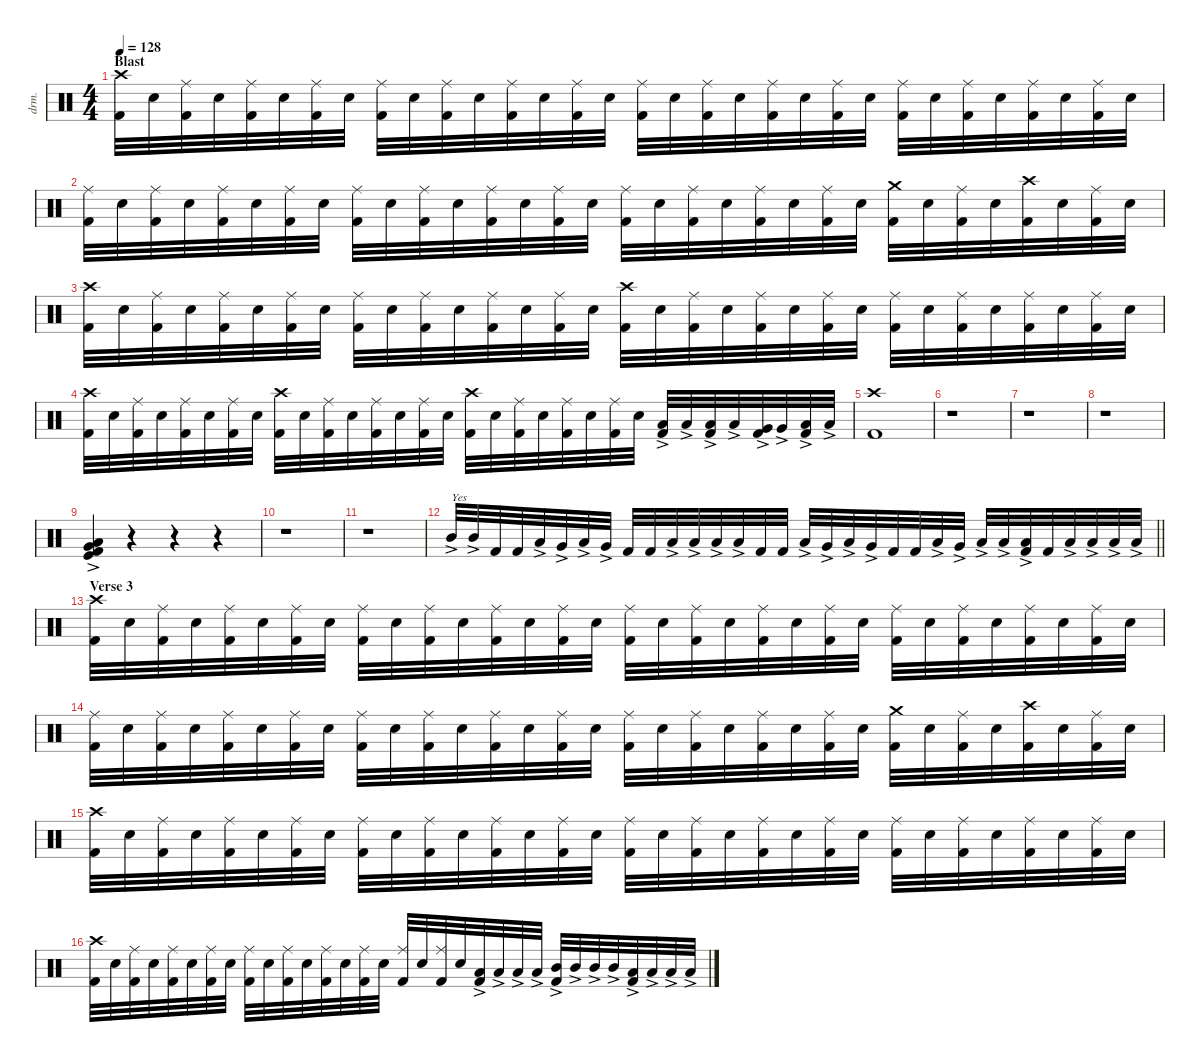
\defaultSystemsLayout 4
\hideDynamics
\bracketExtendMode nobrackets
\otherSystemsTrackNameOrientation horizontal
\track ("Drums" "drm.") {instrument percussion}
\staff {score}
\articulation defaults
\ts (4 4)
\section ("" "Blast")
\tempo 128
\clef neutral
\ks c
("Crash high (hit)" "Kick (hit) 2").32{dy f beam Down} "Snare (hit) 2".32{beam Down} ("Ride (middle)" "Kick (hit) 2").32{beam Down} "Snare (hit) 2".32{beam Down} ("Ride (middle)" "Kick (hit) 2").32{beam Down} "Snare (hit) 2".32{beam Down} ("Ride (middle)" "Kick (hit) 2").32{beam Down} "Snare (hit) 2".32{beam Down} ("Ride (middle)" "Kick (hit) 2").32{beam Down} "Snare (hit) 2".32{beam Down} ("Ride (middle)" "Kick (hit) 2").32{beam Down} "Snare (hit) 2".32{beam Down} ("Ride (middle)" "Kick (hit) 2").32{beam Down} "Snare (hit) 2".32{beam Down} ("Ride (middle)" "Kick (hit) 2").32{beam Down} "Snare (hit) 2".32{beam Down} ("Ride (middle)" "Kick (hit) 2").32{beam Down} "Snare (hit) 2".32{beam Down} ("Ride (middle)" "Kick (hit) 2").32{beam Down} "Snare (hit) 2".32{beam Down} ("Ride (middle)" "Kick (hit) 2").32{beam Down} "Snare (hit) 2".32{beam Down} ("Ride (middle)" "Kick (hit) 2").32{beam Down} "Snare (hit) 2".32{beam Down} ("Ride (middle)" "Kick (hit) 2").32{beam Down} "Snare (hit) 2".32{beam Down} ("Ride (middle)" "Kick (hit) 2").32{beam Down} "Snare (hit) 2".32{beam Down} ("Ride (middle)" "Kick (hit) 2").32{beam Down} "Snare (hit) 2".32{beam Down} ("Ride (middle)" "Kick (hit) 2").32{beam Down} "Snare (hit) 2".32{beam Down} |
("Ride (middle)" "Kick (hit) 2").32{beam Down} "Snare (hit) 2".32{beam Down} ("Ride (middle)" "Kick (hit) 2").32{beam Down} "Snare (hit) 2".32{beam Down} ("Ride (middle)" "Kick (hit) 2").32{beam Down} "Snare (hit) 2".32{beam Down} ("Ride (middle)" "Kick (hit) 2").32{beam Down} "Snare (hit) 2".32{beam Down} ("Ride (middle)" "Kick (hit) 2").32{beam Down} "Snare (hit) 2".32{beam Down} ("Ride (middle)" "Kick (hit) 2").32{beam Down} "Snare (hit) 2".32{beam Down} ("Ride (middle)" "Kick (hit) 2").32{beam Down} "Snare (hit) 2".32{beam Down} ("Ride (middle)" "Kick (hit) 2").32{beam Down} "Snare (hit) 2".32{beam Down} ("Ride (middle)" "Kick (hit) 2").32{beam Down} "Snare (hit) 2".32{beam Down} ("Ride (middle)" "Kick (hit) 2").32{beam Down} "Snare (hit) 2".32{beam Down} ("Ride (middle)" "Kick (hit) 2").32{beam Down} "Snare (hit) 2".32{beam Down} ("Ride (middle)" "Kick (hit) 2").32{beam Down} "Snare (hit) 2".32{beam Down} ("Crash medium (hit)" "Kick (hit) 2").32{beam Down} "Snare (hit) 2".32{beam Down} ("Ride (middle)" "Kick (hit) 2").32{beam Down} "Snare (hit) 2".32{beam Down} ("Crash high (hit)" "Kick (hit) 2").32{beam Down} "Snare (hit) 2".32{beam Down} ("Ride (middle)" "Kick (hit) 2").32{beam Down} "Snare (hit) 2".32{beam Down} |
("Crash high (hit)" "Kick (hit) 2").32{beam Down} "Snare (hit) 2".32{beam Down} ("Ride (middle)" "Kick (hit) 2").32{beam Down} "Snare (hit) 2".32{beam Down} ("Ride (middle)" "Kick (hit) 2").32{beam Down} "Snare (hit) 2".32{beam Down} ("Ride (middle)" "Kick (hit) 2").32{beam Down} "Snare (hit) 2".32{beam Down} ("Ride (middle)" "Kick (hit) 2").32{beam Down} "Snare (hit) 2".32{beam Down} ("Ride (middle)" "Kick (hit) 2").32{beam Down} "Snare (hit) 2".32{beam Down} ("Ride (middle)" "Kick (hit) 2").32{beam Down} "Snare (hit) 2".32{beam Down} ("Ride (middle)" "Kick (hit) 2").32{beam Down} "Snare (hit) 2".32{beam Down} ("Crash high (hit)" "Kick (hit) 2").32{beam Down} "Snare (hit) 2".32{beam Down} ("Ride (middle)" "Kick (hit) 2").32{beam Down} "Snare (hit) 2".32{beam Down} ("Ride (middle)" "Kick (hit) 2").32{beam Down} "Snare (hit) 2".32{beam Down} ("Ride (middle)" "Kick (hit) 2").32{beam Down} "Snare (hit) 2".32{beam Down} ("Ride (middle)" "Kick (hit) 2").32{beam Down} "Snare (hit) 2".32{beam Down} ("Ride (middle)" "Kick (hit) 2").32{beam Down} "Snare (hit) 2".32{beam Down} ("Ride (middle)" "Kick (hit) 2").32{beam Down} "Snare (hit) 2".32{beam Down} ("Ride (middle)" "Kick (hit) 2").32{beam Down} "Snare (hit) 2".32{beam Down} |
("Crash high (hit)" "Kick (hit) 2").32{beam Down} "Snare (hit) 2".32{beam Down} ("Ride (middle)" "Kick (hit) 2").32{beam Down} "Snare (hit) 2".32{beam Down} ("Ride (middle)" "Kick (hit) 2").32{beam Down} "Snare (hit) 2".32{beam Down} ("Ride (middle)" "Kick (hit) 2").32{beam Down} "Snare (hit) 2".32{beam Down} ("Crash high (hit)" "Kick (hit) 2").32{beam Down} "Snare (hit) 2".32{beam Down} ("Ride (middle)" "Kick (hit) 2").32{beam Down} "Snare (hit) 2".32{beam Down} ("Ride (middle)" "Kick (hit) 2").32{beam Down} "Snare (hit) 2".32{beam Down} ("Ride (middle)" "Kick (hit) 2").32{beam Down} "Snare (hit) 2".32{beam Down} ("Crash high (hit)" "Kick (hit) 2").32{beam Down} "Snare (hit) 2".32{beam Down} ("Ride (middle)" "Kick (hit) 2").32{beam Down} "Snare (hit) 2".32{beam Down} ("Ride (middle)" "Kick (hit) 2").32{beam Down} "Snare (hit) 2".32{beam Down} ("Ride (middle)" "Kick (hit) 2").32{beam Down} "Snare (hit) 2".32{beam Down} ("Low Tom (hit)"{ac} "Kick (hit) 2").32{beam Up} "Low Tom (hit)"{ac}.32{dy mf beam Up} ("Low Tom (hit)"{ac} "Kick (hit) 2").32{dy f beam Up} "Low Tom (hit)"{ac}.32{dy mf beam Up} ("Very Low Tom (hit)"{ac} "Kick (hit) 2").32{dy f beam Up} "Very Low Tom (hit)"{ac}.32{dy mf beam Up} ("Low Floor Tom (hit)"{ac} "Kick (hit) 2").32{dy f beam Up} "Low Floor Tom (hit)"{ac}.32{dy mf beam Up} |
("Crash high (hit)" "Kick (hit) 2").1{dy f beam Down} |
r.1{beam Down} |
r.1{beam Down} |
r.1{beam Down} |
("Very Low Tom (hit)"{ac} "Low Floor Tom (hit)"{ac} "Kick (hit)" "Kick (hit) 2").4{beam Up} r.4{beam Up} r.4{beam Up} r.4{beam Up} |
r.1{beam Down} |
r.1{beam Down} |
\barLineRight lightlight "Mid Tom (hit)"{ac}.32{txt "Yes" dy mf beam Up} "Mid Tom (hit)"{ac}.32{beam Up} "Kick (hit) 2".32{dy f beam Up} "Kick (hit) 2".32{beam Up} "Low Floor Tom (hit)"{ac}.32{dy mf beam Up} "Very Low Tom (hit)"{ac}.32{beam Up} "Low Floor Tom (hit)"{ac}.32{beam Up} "Very Low Tom (hit)"{ac}.32{beam Up} "Kick (hit) 2".32{dy f beam Up} "Kick (hit) 2".32{beam Up} "Low Tom (hit)"{ac}.32{dy mf beam Up} "Low Tom (hit)"{ac}.32{beam Up} "Low Tom (hit)"{ac}.32{beam Up} "Low Floor Tom (hit)"{ac}.32{beam Up} "Kick (hit) 2".32{dy f beam Up} "Kick (hit) 2".32{beam Up} "Low Tom (hit)"{ac}.32{dy mf beam Up} "Very Low Tom (hit)"{ac}.32{beam Up} "Low Tom (hit)"{ac}.32{beam Up} "Very Low Tom (hit)"{ac}.32{beam Up} "Kick (hit) 2".32{dy f beam Up} "Kick (hit) 2".32{beam Up} "Low Tom (hit)"{ac}.32{dy mf beam Up} "Very Low Tom (hit)"{ac}.32{beam Up} "Low Tom (hit)"{ac}.32{beam Up} "Low Tom (hit)"{ac}.32{beam Up}
("Low Tom (hit)"{ac} "Kick (hit) 2").32{dy f beam Up} "Kick (hit) 2".32{beam Up} "Low Floor Tom (hit)"{ac}.32{dy mf beam Up} "Low Floor Tom (hit)"{ac}.32{beam Up} "Low Floor Tom (hit)"{ac}.32{beam Up} "Low Floor Tom (hit)"{ac}.32{beam Up} |
\section ("" "Verse 3")
("Crash high (hit)" "Kick (hit) 2").32{dy f beam Down} "Snare (hit) 2".32{beam Down} ("Ride (middle)" "Kick (hit) 2").32{beam Down} "Snare (hit) 2".32{beam Down} ("Ride (middle)" "Kick (hit) 2").32{beam Down} "Snare (hit) 2".32{beam Down} ("Ride (middle)" "Kick (hit) 2").32{beam Down} "Snare (hit) 2".32{beam Down} ("Ride (middle)" "Kick (hit) 2").32{beam Down} "Snare (hit) 2".32{beam Down} ("Ride (middle)" "Kick (hit) 2").32{beam Down} "Snare (hit) 2".32{beam Down} ("Ride (middle)" "Kick (hit) 2").32{beam Down} "Snare (hit) 2".32{beam Down} ("Ride (middle)" "Kick (hit) 2").32{beam Down} "Snare (hit) 2".32{beam Down} ("Ride (middle)" "Kick (hit) 2").32{beam Down} "Snare (hit) 2".32{beam Down} ("Ride (middle)" "Kick (hit) 2").32{beam Down} "Snare (hit) 2".32{beam Down} ("Ride (middle)" "Kick (hit) 2").32{beam Down} "Snare (hit) 2".32{beam Down} ("Ride (middle)" "Kick (hit) 2").32{beam Down} "Snare (hit) 2".32{beam Down} ("Ride (middle)" "Kick (hit) 2").32{beam Down} "Snare (hit) 2".32{beam Down} ("Ride (middle)" "Kick (hit) 2").32{beam Down} "Snare (hit) 2".32{beam Down} ("Ride (middle)" "Kick (hit) 2").32{beam Down} "Snare (hit) 2".32{beam Down} ("Ride (middle)" "Kick (hit) 2").32{beam Down} "Snare (hit) 2".32{beam Down} |
("Ride (middle)" "Kick (hit) 2").32{beam Down} "Snare (hit) 2".32{beam Down} ("Ride (middle)" "Kick (hit) 2").32{beam Down} "Snare (hit) 2".32{beam Down} ("Ride (middle)" "Kick (hit) 2").32{beam Down} "Snare (hit) 2".32{beam Down} ("Ride (middle)" "Kick (hit) 2").32{beam Down} "Snare (hit) 2".32{beam Down} ("Ride (middle)" "Kick (hit) 2").32{beam Down} "Snare (hit) 2".32{beam Down} ("Ride (middle)" "Kick (hit) 2").32{beam Down} "Snare (hit) 2".32{beam Down} ("Ride (middle)" "Kick (hit) 2").32{beam Down} "Snare (hit) 2".32{beam Down} ("Ride (middle)" "Kick (hit) 2").32{beam Down} "Snare (hit) 2".32{beam Down} ("Ride (middle)" "Kick (hit) 2").32{beam Down} "Snare (hit) 2".32{beam Down} ("Ride (middle)" "Kick (hit) 2").32{beam Down} "Snare (hit) 2".32{beam Down} ("Ride (middle)" "Kick (hit) 2").32{beam Down} "Snare (hit) 2".32{beam Down} ("Ride (middle)" "Kick (hit) 2").32{beam Down} "Snare (hit) 2".32{beam Down} ("Crash medium (hit)" "Kick (hit) 2").32{beam Down} "Snare (hit) 2".32{beam Down} ("Ride (middle)" "Kick (hit) 2").32{beam Down} "Snare (hit) 2".32{beam Down} ("Crash high (hit)" "Kick (hit) 2").32{beam Down} "Snare (hit) 2".32{beam Down} ("Ride (middle)" "Kick (hit) 2").32{beam Down} "Snare (hit) 2".32{beam Down} |
("Crash high (hit)" "Kick (hit) 2").32{beam Down} "Snare (hit) 2".32{beam Down} ("Ride (middle)" "Kick (hit) 2").32{beam Down} "Snare (hit) 2".32{beam Down} ("Ride (middle)" "Kick (hit) 2").32{beam Down} "Snare (hit) 2".32{beam Down} ("Ride (middle)" "Kick (hit) 2").32{beam Down} "Snare (hit) 2".32{beam Down} ("Ride (middle)" "Kick (hit) 2").32{beam Down} "Snare (hit) 2".32{beam Down} ("Ride (middle)" "Kick (hit) 2").32{beam Down} "Snare (hit) 2".32{beam Down} ("Ride (middle)" "Kick (hit) 2").32{beam Down} "Snare (hit) 2".32{beam Down} ("Ride (middle)" "Kick (hit) 2").32{beam Down} "Snare (hit) 2".32{beam Down} ("Ride (middle)" "Kick (hit) 2").32{beam Down} "Snare (hit) 2".32{beam Down} ("Ride (middle)" "Kick (hit) 2").32{beam Down} "Snare (hit) 2".32{beam Down} ("Ride (middle)" "Kick (hit) 2").32{beam Down} "Snare (hit) 2".32{beam Down} ("Ride (middle)" "Kick (hit) 2").32{beam Down} "Snare (hit) 2".32{beam Down} ("Ride (middle)" "Kick (hit) 2").32{beam Down} "Snare (hit) 2".32{beam Down} ("Ride (middle)" "Kick (hit) 2").32{beam Down} "Snare (hit) 2".32{beam Down} ("Ride (middle)" "Kick (hit) 2").32{beam Down} "Snare (hit) 2".32{beam Down} ("Ride (middle)" "Kick (hit) 2").32{beam Down} "Snare (hit) 2".32{beam Down} |
("Crash high (hit)" "Kick (hit) 2").32{beam Down} "Snare (hit) 2".32{beam Down} ("Ride (middle)" "Kick (hit) 2").32{beam Down} "Snare (hit) 2".32{beam Down} ("Ride (middle)" "Kick (hit) 2").32{beam Down} "Snare (hit) 2".32{beam Down} ("Ride (middle)" "Kick (hit) 2").32{beam Down} "Snare (hit) 2".32{beam Down} ("Ride (middle)" "Kick (hit) 2").32{beam Down} "Snare (hit) 2".32{beam Down} ("Ride (middle)" "Kick (hit) 2").32{beam Down} "Snare (hit) 2".32{beam Down} ("Ride (middle)" "Kick (hit) 2").32{beam Down} "Snare (hit) 2".32{beam Down} ("Ride (middle)" "Kick (hit) 2").32{beam Down} "Snare (hit) 2".32{beam Down} ("Ride (middle)" "Kick (hit) 2").32{beam Up} "Snare (hit) 2".32{beam Up} ("Ride (middle)" "Kick (hit) 2").32{beam Up} "Snare (hit) 2".32{beam Up} ("Low Tom (hit)"{ac} "Kick (hit) 2").32{beam Up} "Low Tom (hit)"{ac}.32{dy mf beam Up} "Low Tom (hit)"{ac}.32{beam Up} "Low Tom (hit)"{ac}.32{beam Up} ("Mid Tom (hit)"{ac} "Kick (hit) 2").32{dy f beam Up} "Mid Tom (hit)"{ac}.32{dy mf beam Up} "Mid Tom (hit)"{ac}.32{beam Up} "Mid Tom (hit)"{ac}.32{beam Up} ("Low Tom (hit)"{ac} "Kick (hit) 2").32{dy f beam Up} "Low Tom (hit)"{ac}.32{dy mf beam Up} "Low Tom (hit)"{ac}.32{beam Up} "Low Tom (hit)"{ac}.32{beam Up}
